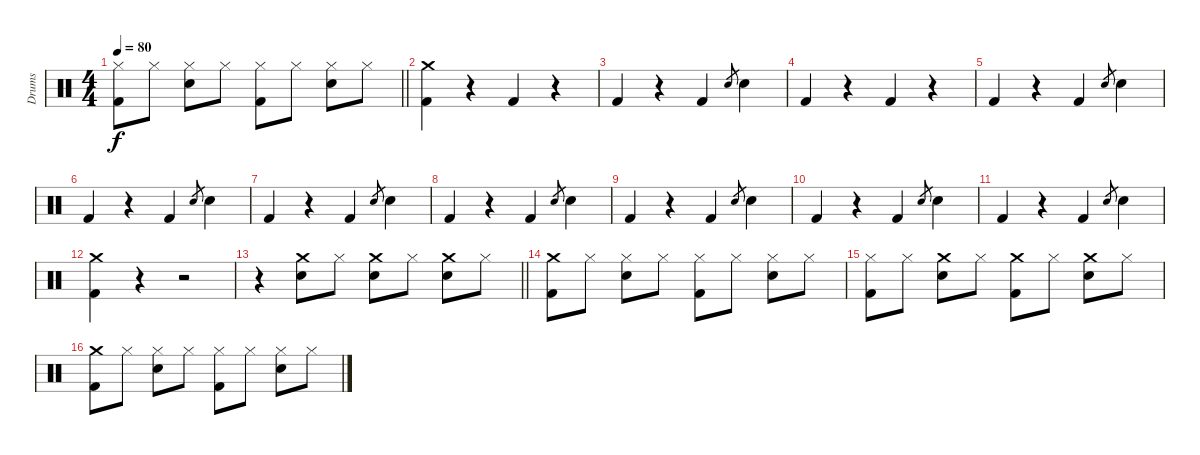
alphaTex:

\track ("Drums" "Drums") {instrument percussion}
\staff {score}
\articulation defaults
\ts (4 4)
\tempo 80
\clef neutral
\barLineRight lightlight
\ks c
("Hi-Hat (closed)" "Kick (hit) 2").8{dy f} "Hi-Hat (closed)".8 ("Hi-Hat (closed)" "Snare (hit) 2").8 "Hi-Hat (closed)".8 ("Hi-Hat (closed)" "Kick (hit) 2").8 "Hi-Hat (closed)".8 ("Hi-Hat (closed)" "Snare (hit) 2").8 "Hi-Hat (closed)".8 |
("Crash medium (hit)" "Kick (hit) 2").4 r.4 "Kick (hit) 2".4 r.4 |
"Kick (hit) 2".4 r.4 "Kick (hit) 2".4 "Snare (hit) 2".8{gr} "Snare (hit) 2".4 |
"Kick (hit) 2".4 r.4 "Kick (hit) 2".4 r.4 |
"Kick (hit) 2".4 r.4 "Kick (hit) 2".4 "Snare (hit) 2".8{gr} "Snare (hit) 2".4 |
"Kick (hit) 2".4 r.4 "Kick (hit) 2".4 "Snare (hit) 2".8{gr} "Snare (hit) 2".4 |
"Kick (hit) 2".4 r.4 "Kick (hit) 2".4 "Snare (hit) 2".8{gr} "Snare (hit) 2".4 |
"Kick (hit) 2".4 r.4 "Kick (hit) 2".4 "Snare (hit) 2".8{gr} "Snare (hit) 2".4 |
"Kick (hit) 2".4 r.4 "Kick (hit) 2".4 "Snare (hit) 2".8{gr} "Snare (hit) 2".4 |
"Kick (hit) 2".4 r.4 "Kick (hit) 2".4 "Snare (hit) 2".8{gr} "Snare (hit) 2".4 |
"Kick (hit) 2".4 r.4 "Kick (hit) 2".4 "Snare (hit) 2".8{gr} "Snare (hit) 2".4 |
("Crash medium (hit)" "Kick (hit) 2").4 r.4 r.2 |
\barLineRight lightlight
r.4 ("Crash medium (hit)" "Snare (hit) 2").8 "Hi-Hat (closed)".8 ("Crash medium (hit)" "Snare (hit) 2").8 "Hi-Hat (closed)".8 ("Crash medium (hit)" "Snare (hit) 2").8 "Hi-Hat (closed)".8 |
("Crash medium (hit)" "Kick (hit) 2").8 "Hi-Hat (closed)".8 ("Hi-Hat (closed)" "Snare (hit) 2").8 "Hi-Hat (closed)".8 ("Hi-Hat (closed)" "Kick (hit) 2").8 "Hi-Hat (closed)".8 ("Hi-Hat (closed)" "Snare (hit) 2").8 "Hi-Hat (closed)".8 |
("Hi-Hat (closed)" "Kick (hit) 2").8 "Hi-Hat (closed)".8 ("Crash medium (hit)" "Snare (hit) 2").8 "Hi-Hat (closed)".8 ("Crash medium (hit)" "Kick (hit) 2").8 "Hi-Hat (closed)".8 ("Crash medium (hit)" "Snare (hit) 2").8 "Hi-Hat (closed)".8 |
("Crash medium (hit)" "Kick (hit) 2").8 "Hi-Hat (closed)".8 ("Hi-Hat (closed)" "Snare (hit) 2").8 "Hi-Hat (closed)".8 ("Hi-Hat (closed)" "Kick (hit) 2").8 "Hi-Hat (closed)".8 ("Hi-Hat (closed)" "Snare (hit) 2").8 "Hi-Hat (closed)".8
